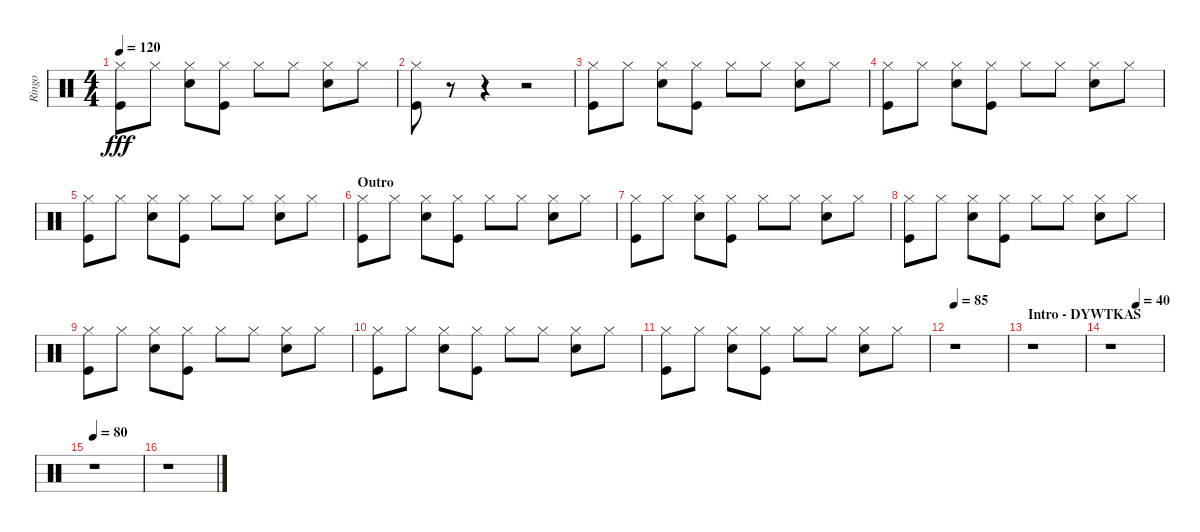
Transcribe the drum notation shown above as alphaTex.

\track ("Ringo" "Ringo") {instrument percussion}
\staff {score}
\articulation defaults
\ts (4 4)
\tempo 120
\clef neutral
\ks c
("Hi-Hat (closed)" "Kick (hit)").8{dy fff} "Hi-Hat (closed)".8 ("Hi-Hat (closed)" "Electric Snare (hit)").8 ("Hi-Hat (closed)" "Kick (hit)").8 "Hi-Hat (closed)".8 "Hi-Hat (closed)".8 ("Hi-Hat (closed)" "Electric Snare (hit)").8 "Hi-Hat (closed)".8 |
("Hi-Hat (closed)" "Kick (hit)").8 r.8 r.4 r.2 |
("Hi-Hat (closed)" "Kick (hit)").8 "Hi-Hat (closed)".8 ("Hi-Hat (closed)" "Electric Snare (hit)").8 ("Hi-Hat (closed)" "Kick (hit)").8 "Hi-Hat (closed)".8 "Hi-Hat (closed)".8 ("Hi-Hat (closed)" "Electric Snare (hit)").8 "Hi-Hat (closed)".8 |
("Hi-Hat (closed)" "Kick (hit)").8 "Hi-Hat (closed)".8 ("Hi-Hat (closed)" "Electric Snare (hit)").8 ("Hi-Hat (closed)" "Kick (hit)").8 "Hi-Hat (closed)".8 "Hi-Hat (closed)".8 ("Hi-Hat (closed)" "Electric Snare (hit)").8 "Hi-Hat (closed)".8 |
("Hi-Hat (closed)" "Kick (hit)").8 "Hi-Hat (closed)".8 ("Hi-Hat (closed)" "Electric Snare (hit)").8 ("Hi-Hat (closed)" "Kick (hit)").8 "Hi-Hat (closed)".8 "Hi-Hat (closed)".8 ("Hi-Hat (closed)" "Electric Snare (hit)").8 "Hi-Hat (closed)".8 |
\section ("" "Outro")
("Hi-Hat (closed)" "Kick (hit)").8 "Hi-Hat (closed)".8 ("Hi-Hat (closed)" "Electric Snare (hit)").8 ("Hi-Hat (closed)" "Kick (hit)").8 "Hi-Hat (closed)".8 "Hi-Hat (closed)".8 ("Hi-Hat (closed)" "Electric Snare (hit)").8 "Hi-Hat (closed)".8 |
("Hi-Hat (closed)" "Kick (hit)").8 "Hi-Hat (closed)".8 ("Hi-Hat (closed)" "Electric Snare (hit)").8 ("Hi-Hat (closed)" "Kick (hit)").8 "Hi-Hat (closed)".8 "Hi-Hat (closed)".8 ("Hi-Hat (closed)" "Electric Snare (hit)").8 "Hi-Hat (closed)".8 |
("Hi-Hat (closed)" "Kick (hit)").8 "Hi-Hat (closed)".8 ("Hi-Hat (closed)" "Electric Snare (hit)").8 ("Hi-Hat (closed)" "Kick (hit)").8 "Hi-Hat (closed)".8 "Hi-Hat (closed)".8 ("Hi-Hat (closed)" "Electric Snare (hit)").8 "Hi-Hat (closed)".8 |
("Hi-Hat (closed)" "Kick (hit)").8 "Hi-Hat (closed)".8 ("Hi-Hat (closed)" "Electric Snare (hit)").8 ("Hi-Hat (closed)" "Kick (hit)").8 "Hi-Hat (closed)".8 "Hi-Hat (closed)".8 ("Hi-Hat (closed)" "Electric Snare (hit)").8 "Hi-Hat (closed)".8 |
("Hi-Hat (closed)" "Kick (hit)").8 "Hi-Hat (closed)".8 ("Hi-Hat (closed)" "Electric Snare (hit)").8 ("Hi-Hat (closed)" "Kick (hit)").8 "Hi-Hat (closed)".8 "Hi-Hat (closed)".8 ("Hi-Hat (closed)" "Electric Snare (hit)").8 "Hi-Hat (closed)".8 |
("Hi-Hat (closed)" "Kick (hit)").8 "Hi-Hat (closed)".8 ("Hi-Hat (closed)" "Electric Snare (hit)").8 ("Hi-Hat (closed)" "Kick (hit)").8 "Hi-Hat (closed)".8 "Hi-Hat (closed)".8 ("Hi-Hat (closed)" "Electric Snare (hit)").8 "Hi-Hat (closed)".8 |
\tempo 85
r.1 |
\section ("" "Intro - DYWTKAS")
r.1 |
\tempo (40 0.5)
r.1 |
\tempo 80
r.1 |
r.1
